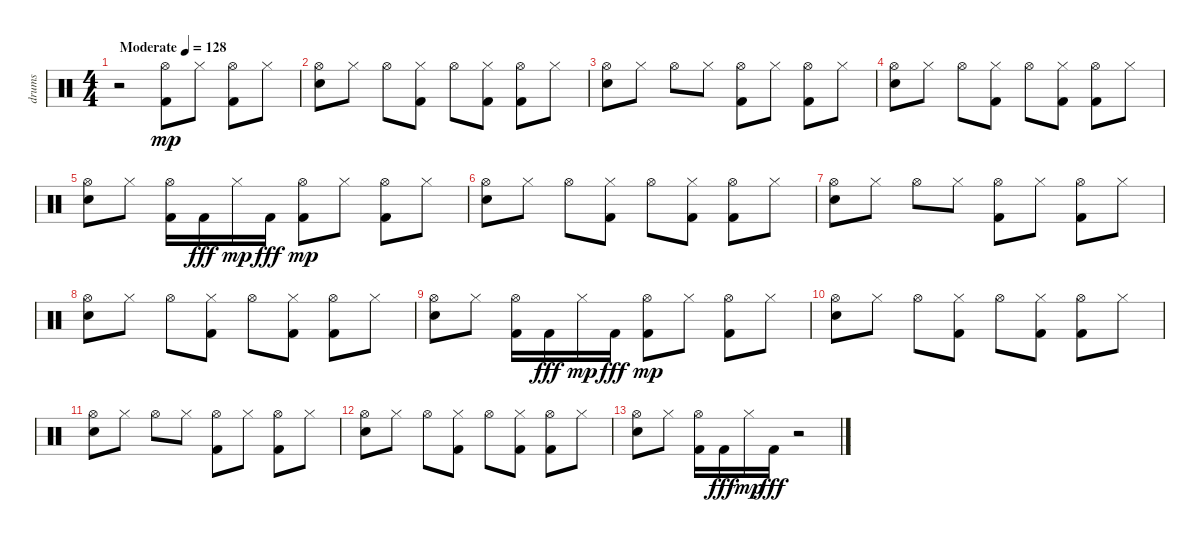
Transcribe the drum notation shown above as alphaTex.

\track ("drums" "drums") {instrument percussion}
\staff {score}
\articulation defaults
\ts (4 4)
\tempo (128 "Moderate")
\clef neutral
\ks c
r.2{dy mp} ("Kick (hit) 2" "Hi-Hat (open)").8 "Hi-Hat (closed)".8 ("Kick (hit) 2" "Hi-Hat (open)").8 "Hi-Hat (closed)".8 |
("Hand Clap (hit)" "Hi-Hat (open)").8 "Hi-Hat (closed)".8 "Hi-Hat (open)".8 ("Kick (hit) 2" "Hi-Hat (closed)").8 "Hi-Hat (open)".8 ("Kick (hit) 2" "Hi-Hat (closed)").8 ("Kick (hit) 2" "Hi-Hat (open)").8 "Hi-Hat (closed)".8 |
("Hand Clap (hit)" "Hi-Hat (open)").8 "Hi-Hat (closed)".8 "Hi-Hat (open)".8 "Hi-Hat (closed)".8 ("Kick (hit) 2" "Hi-Hat (open)").8 "Hi-Hat (closed)".8 ("Kick (hit) 2" "Hi-Hat (open)").8 "Hi-Hat (closed)".8 |
("Hand Clap (hit)" "Hi-Hat (open)").8 "Hi-Hat (closed)".8 "Hi-Hat (open)".8 ("Kick (hit) 2" "Hi-Hat (closed)").8 "Hi-Hat (open)".8 ("Kick (hit) 2" "Hi-Hat (closed)").8 ("Kick (hit) 2" "Hi-Hat (open)").8 "Hi-Hat (closed)".8 |
("Hand Clap (hit)" "Hi-Hat (open)").8 "Hi-Hat (closed)".8 ("Kick (hit) 2" "Hi-Hat (open)").16 "Kick (hit) 2".16{dy fff} "Hi-Hat (closed)".16{dy mp} "Kick (hit) 2".16{dy fff} ("Kick (hit) 2" "Hi-Hat (open)").8{dy mp} "Hi-Hat (closed)".8 ("Kick (hit) 2" "Hi-Hat (open)").8 "Hi-Hat (closed)".8 |
("Hand Clap (hit)" "Hi-Hat (open)").8 "Hi-Hat (closed)".8 "Hi-Hat (open)".8 ("Kick (hit) 2" "Hi-Hat (closed)").8 "Hi-Hat (open)".8 ("Kick (hit) 2" "Hi-Hat (closed)").8 ("Kick (hit) 2" "Hi-Hat (open)").8 "Hi-Hat (closed)".8 |
("Hand Clap (hit)" "Hi-Hat (open)").8 "Hi-Hat (closed)".8 "Hi-Hat (open)".8 "Hi-Hat (closed)".8 ("Kick (hit) 2" "Hi-Hat (open)").8 "Hi-Hat (closed)".8 ("Kick (hit) 2" "Hi-Hat (open)").8 "Hi-Hat (closed)".8 |
("Hand Clap (hit)" "Hi-Hat (open)").8 "Hi-Hat (closed)".8 "Hi-Hat (open)".8 ("Kick (hit) 2" "Hi-Hat (closed)").8 "Hi-Hat (open)".8 ("Kick (hit) 2" "Hi-Hat (closed)").8 ("Kick (hit) 2" "Hi-Hat (open)").8 "Hi-Hat (closed)".8 |
("Hand Clap (hit)" "Hi-Hat (open)").8 "Hi-Hat (closed)".8 ("Kick (hit) 2" "Hi-Hat (open)").16 "Kick (hit) 2".16{dy fff} "Hi-Hat (closed)".16{dy mp} "Kick (hit) 2".16{dy fff} ("Kick (hit) 2" "Hi-Hat (open)").8{dy mp} "Hi-Hat (closed)".8 ("Kick (hit) 2" "Hi-Hat (open)").8 "Hi-Hat (closed)".8 |
("Hand Clap (hit)" "Hi-Hat (open)").8 "Hi-Hat (closed)".8 "Hi-Hat (open)".8 ("Kick (hit) 2" "Hi-Hat (closed)").8 "Hi-Hat (open)".8 ("Kick (hit) 2" "Hi-Hat (closed)").8 ("Kick (hit) 2" "Hi-Hat (open)").8 "Hi-Hat (closed)".8 |
("Hand Clap (hit)" "Hi-Hat (open)").8 "Hi-Hat (closed)".8 "Hi-Hat (open)".8 "Hi-Hat (closed)".8 ("Kick (hit) 2" "Hi-Hat (open)").8 "Hi-Hat (closed)".8 ("Kick (hit) 2" "Hi-Hat (open)").8 "Hi-Hat (closed)".8 |
("Hand Clap (hit)" "Hi-Hat (open)").8 "Hi-Hat (closed)".8 "Hi-Hat (open)".8 ("Kick (hit) 2" "Hi-Hat (closed)").8 "Hi-Hat (open)".8 ("Kick (hit) 2" "Hi-Hat (closed)").8 ("Kick (hit) 2" "Hi-Hat (open)").8 "Hi-Hat (closed)".8 |
("Hand Clap (hit)" "Hi-Hat (open)").8 "Hi-Hat (closed)".8 ("Kick (hit) 2" "Hi-Hat (open)").16 "Kick (hit) 2".16{dy fff} "Hi-Hat (closed)".16{dy mp} "Kick (hit) 2".16{dy fff} r.2
